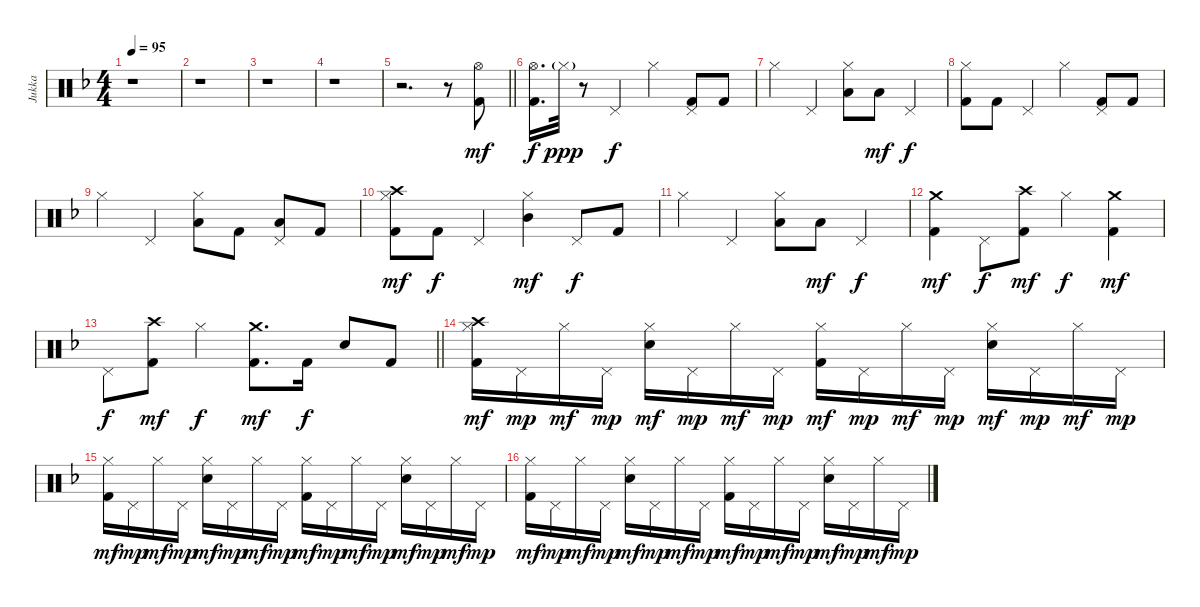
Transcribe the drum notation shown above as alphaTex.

\track ("Jukka" "Jukka") {instrument percussion}
\staff {score}
\articulation defaults
\ts (4 4)
\tempo 95
\clef neutral
\ks f
r.1{dy mf} |
r.1 |
r.1 |
r.1 |
\barLineRight lightlight
r.2{d} r.8 ("Hi-Hat (open)" "Kick (hit) 2").8 |
("Hi-Hat (open)" "Kick (hit) 2").16{d dy f} "Hi-Hat (closed)"{g}.32{dy ppp} r.8 "Pedal Hi-Hat (hit)".4{dy f} "Hi-Hat (closed)".4 ("Pedal Hi-Hat (hit)" "Kick (hit) 2").8 "Kick (hit) 2".8 |
"Hi-Hat (closed)".4 "Pedal Hi-Hat (hit)".4 ("Hi-Hat (closed)" "Low Tom (hit)").8 "Low Floor Tom (hit)".8{dy mf} "Pedal Hi-Hat (hit)".4{dy f} |
("Hi-Hat (closed)" "Kick (hit) 2").8 "Kick (hit) 2".8 "Pedal Hi-Hat (hit)".4 "Hi-Hat (closed)".4 ("Pedal Hi-Hat (hit)" "Kick (hit) 2").8 "Kick (hit) 2".8 |
"Hi-Hat (closed)".4 "Pedal Hi-Hat (hit)".4 ("Hi-Hat (closed)" "Low Tom (hit)").8 "Kick (hit) 2".8 ("Pedal Hi-Hat (hit)" "Low Floor Tom (hit)").8 "Kick (hit) 2".8 |
("Hi-Hat (closed)" "Crash high (hit)" "Kick (hit) 2").8{dy mf} "Kick (hit) 2".8{dy f} "Pedal Hi-Hat (hit)".4 ("Hi-Hat (closed)" "Mid Tom (hit)").4{dy mf} "Pedal Hi-Hat (hit)".8{dy f} "Kick (hit) 2".8 |
"Hi-Hat (closed)".4 "Pedal Hi-Hat (hit)".4 ("Hi-Hat (closed)" "Low Tom (hit)").8 "Low Floor Tom (hit)".8{dy mf} "Pedal Hi-Hat (hit)".4{dy f} |
("Crash medium (hit)" "Kick (hit) 2").4{dy mf} "Pedal Hi-Hat (hit)".8{dy f} ("Crash high (hit)" "Kick (hit) 2").8{dy mf} "Hi-Hat (closed)".4{dy f} ("Crash medium (hit)" "Kick (hit) 2").4{dy mf} |
\barLineRight lightlight "Pedal Hi-Hat (hit)".8{dy f}
("Crash high (hit)" "Kick (hit) 2").8{dy mf} "Hi-Hat (closed)".4{dy f} ("Crash medium (hit)" "Kick (hit) 2").8{d dy mf} "Kick (hit) 2".16{dy f} "Electric Snare (hit)".8 "Kick (hit) 2".8 |
("Crash high (hit)" "Hi-Hat (closed)" "Kick (hit) 2").16{dy mf} "Pedal Hi-Hat (hit)".16{dy mp} "Hi-Hat (closed)".16{dy mf} "Pedal Hi-Hat (hit)".16{dy mp} ("Hi-Hat (closed)" "Electric Snare (hit)").16{dy mf} "Pedal Hi-Hat (hit)".16{dy mp} "Hi-Hat (closed)".16{dy mf} "Pedal Hi-Hat (hit)".16{dy mp} ("Hi-Hat (closed)" "Kick (hit) 2").16{dy mf} "Pedal Hi-Hat (hit)".16{dy mp} "Hi-Hat (closed)".16{dy mf} "Pedal Hi-Hat (hit)".16{dy mp} ("Hi-Hat (closed)" "Electric Snare (hit)").16{dy mf} "Pedal Hi-Hat (hit)".16{dy mp} "Hi-Hat (closed)".16{dy mf} "Pedal Hi-Hat (hit)".16{dy mp} |
("Hi-Hat (closed)" "Kick (hit) 2").16{dy mf} "Pedal Hi-Hat (hit)".16{dy mp} "Hi-Hat (closed)".16{dy mf} "Pedal Hi-Hat (hit)".16{dy mp} ("Hi-Hat (closed)" "Electric Snare (hit)").16{dy mf} "Pedal Hi-Hat (hit)".16{dy mp} "Hi-Hat (closed)".16{dy mf} "Pedal Hi-Hat (hit)".16{dy mp} ("Hi-Hat (closed)" "Kick (hit) 2").16{dy mf} "Pedal Hi-Hat (hit)".16{dy mp} "Hi-Hat (closed)".16{dy mf} "Pedal Hi-Hat (hit)".16{dy mp} ("Hi-Hat (closed)" "Electric Snare (hit)").16{dy mf} "Pedal Hi-Hat (hit)".16{dy mp} "Hi-Hat (closed)".16{dy mf} "Pedal Hi-Hat (hit)".16{dy mp} |
("Hi-Hat (closed)" "Kick (hit) 2").16{dy mf} "Pedal Hi-Hat (hit)".16{dy mp} "Hi-Hat (closed)".16{dy mf} "Pedal Hi-Hat (hit)".16{dy mp} ("Hi-Hat (closed)" "Electric Snare (hit)").16{dy mf} "Pedal Hi-Hat (hit)".16{dy mp} "Hi-Hat (closed)".16{dy mf} "Pedal Hi-Hat (hit)".16{dy mp} ("Hi-Hat (closed)" "Kick (hit) 2").16{dy mf} "Pedal Hi-Hat (hit)".16{dy mp} "Hi-Hat (closed)".16{dy mf} "Pedal Hi-Hat (hit)".16{dy mp} ("Hi-Hat (closed)" "Electric Snare (hit)").16{dy mf} "Pedal Hi-Hat (hit)".16{dy mp} "Hi-Hat (closed)".16{dy mf} "Pedal Hi-Hat (hit)".16{dy mp}
